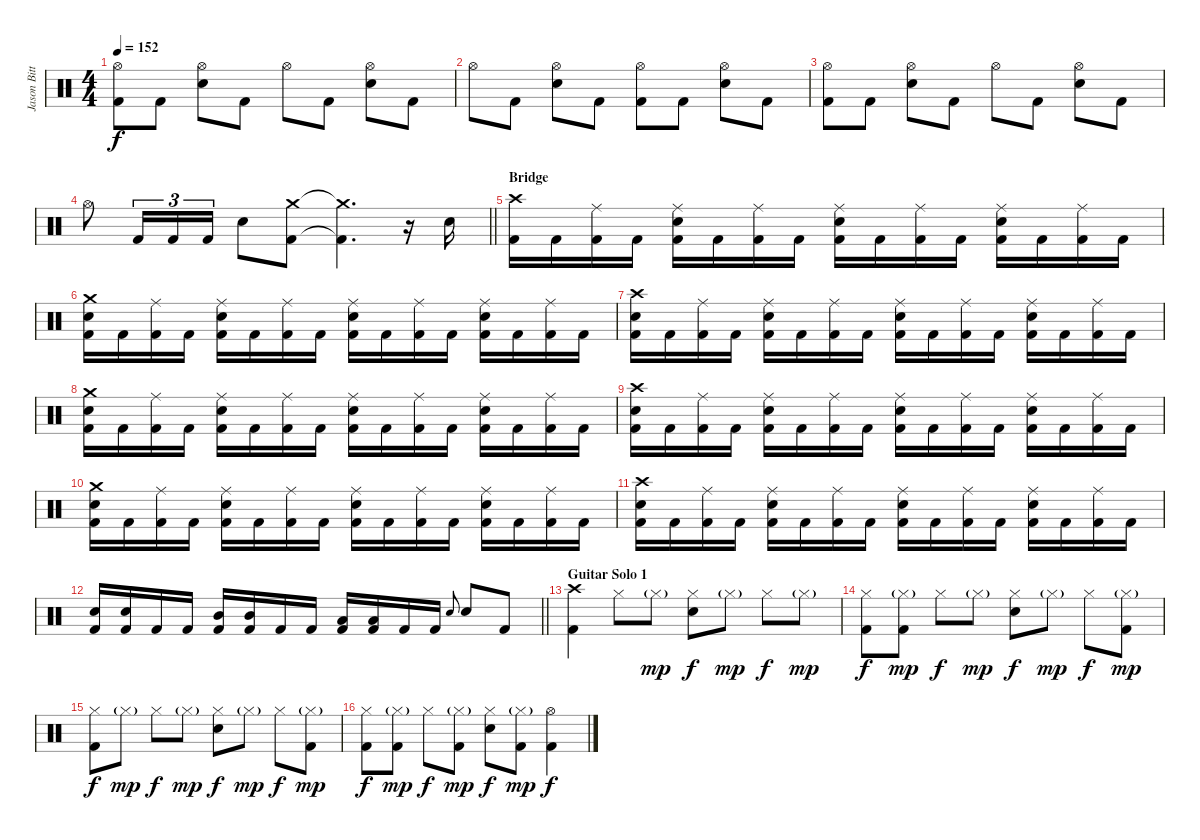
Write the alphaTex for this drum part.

\track ("Jason Bittner" "Jason Bitt") {instrument percussion}
\staff {score}
\articulation defaults
\ts (4 4)
\tempo 152
\clef neutral
\ks c
("Hi-Hat (open)" "Kick (hit) 2").8{dy f} "Kick (hit) 2".8 ("Hi-Hat (open)" "Electric Snare (hit)").8 "Kick (hit) 2".8 "Hi-Hat (open)".8 "Kick (hit) 2".8 ("Hi-Hat (open)" "Electric Snare (hit)").8 "Kick (hit) 2".8 |
"Hi-Hat (open)".8 "Kick (hit) 2".8 ("Hi-Hat (open)" "Electric Snare (hit)").8 "Kick (hit) 2".8 ("Hi-Hat (open)" "Kick (hit) 2").8 "Kick (hit) 2".8 ("Hi-Hat (open)" "Electric Snare (hit)").8 "Kick (hit) 2".8 |
("Hi-Hat (open)" "Kick (hit) 2").8 "Kick (hit) 2".8 ("Hi-Hat (open)" "Electric Snare (hit)").8 "Kick (hit) 2".8 "Hi-Hat (open)".8 "Kick (hit) 2".8 ("Hi-Hat (open)" "Electric Snare (hit)").8 "Kick (hit) 2".8 |
\barLineRight lightlight "Hi-Hat (open)".8 "Kick (hit) 2".16{tu (3 2)} "Kick (hit) 2".16{tu (3 2)} "Kick (hit) 2".16{tu (3 2)} "Electric Snare (hit)".8
("Crash medium (hit)" "Kick (hit) 2").8 ("Crash medium (hit)"{t} "Kick (hit) 2"{t}).4{d} r.16 "Electric Snare (hit)".16 |
\section ("" "Bridge")
("Crash high (hit)" "Kick (hit) 2").16 "Kick (hit) 2".16 ("Ride (middle)" "Kick (hit) 2").16 "Kick (hit) 2".16 ("Ride (middle)" "Electric Snare (hit)" "Kick (hit) 2").16 "Kick (hit) 2".16 ("Ride (middle)" "Kick (hit) 2").16 "Kick (hit) 2".16 ("Ride (middle)" "Electric Snare (hit)" "Kick (hit) 2").16 "Kick (hit) 2".16 ("Ride (middle)" "Kick (hit) 2").16 "Kick (hit) 2".16 ("Ride (middle)" "Electric Snare (hit)" "Kick (hit) 2").16 "Kick (hit) 2".16 ("Ride (middle)" "Kick (hit) 2").16 "Kick (hit) 2".16 |
("Crash medium (hit)" "Electric Snare (hit)" "Kick (hit) 2").16 "Kick (hit) 2".16 ("Ride (middle)" "Kick (hit) 2").16 "Kick (hit) 2".16 ("Ride (middle)" "Electric Snare (hit)" "Kick (hit) 2").16 "Kick (hit) 2".16 ("Ride (middle)" "Kick (hit) 2").16 "Kick (hit) 2".16 ("Ride (middle)" "Electric Snare (hit)" "Kick (hit) 2").16 "Kick (hit) 2".16 ("Ride (middle)" "Kick (hit) 2").16 "Kick (hit) 2".16 ("Ride (middle)" "Electric Snare (hit)" "Kick (hit) 2").16 "Kick (hit) 2".16 ("Ride (middle)" "Kick (hit) 2").16 "Kick (hit) 2".16 |
("Crash high (hit)" "Electric Snare (hit)" "Kick (hit) 2").16 "Kick (hit) 2".16 ("Ride (middle)" "Kick (hit) 2").16 "Kick (hit) 2".16 ("Ride (middle)" "Electric Snare (hit)" "Kick (hit) 2").16 "Kick (hit) 2".16 ("Ride (middle)" "Kick (hit) 2").16 "Kick (hit) 2".16 ("Ride (middle)" "Electric Snare (hit)" "Kick (hit) 2").16 "Kick (hit) 2".16 ("Ride (middle)" "Kick (hit) 2").16 "Kick (hit) 2".16 ("Ride (middle)" "Electric Snare (hit)" "Kick (hit) 2").16 "Kick (hit) 2".16 ("Ride (middle)" "Kick (hit) 2").16 "Kick (hit) 2".16 |
("Crash medium (hit)" "Electric Snare (hit)" "Kick (hit) 2").16 "Kick (hit) 2".16 ("Ride (middle)" "Kick (hit) 2").16 "Kick (hit) 2".16 ("Ride (middle)" "Electric Snare (hit)" "Kick (hit) 2").16 "Kick (hit) 2".16 ("Ride (middle)" "Kick (hit) 2").16 "Kick (hit) 2".16 ("Ride (middle)" "Electric Snare (hit)" "Kick (hit) 2").16 "Kick (hit) 2".16 ("Ride (middle)" "Kick (hit) 2").16 "Kick (hit) 2".16 ("Ride (middle)" "Electric Snare (hit)" "Kick (hit) 2").16 "Kick (hit) 2".16 ("Ride (middle)" "Kick (hit) 2").16 "Kick (hit) 2".16 |
("Crash high (hit)" "Electric Snare (hit)" "Kick (hit) 2").16 "Kick (hit) 2".16 ("Ride (middle)" "Kick (hit) 2").16 "Kick (hit) 2".16 ("Ride (middle)" "Electric Snare (hit)" "Kick (hit) 2").16 "Kick (hit) 2".16 ("Ride (middle)" "Kick (hit) 2").16 "Kick (hit) 2".16 ("Ride (middle)" "Electric Snare (hit)" "Kick (hit) 2").16 "Kick (hit) 2".16 ("Ride (middle)" "Kick (hit) 2").16 "Kick (hit) 2".16 ("Ride (middle)" "Electric Snare (hit)" "Kick (hit) 2").16 "Kick (hit) 2".16 ("Ride (middle)" "Kick (hit) 2").16 "Kick (hit) 2".16 |
("Crash medium (hit)" "Electric Snare (hit)" "Kick (hit) 2").16 "Kick (hit) 2".16 ("Ride (middle)" "Kick (hit) 2").16 "Kick (hit) 2".16 ("Ride (middle)" "Electric Snare (hit)" "Kick (hit) 2").16 "Kick (hit) 2".16 ("Ride (middle)" "Kick (hit) 2").16 "Kick (hit) 2".16 ("Ride (middle)" "Electric Snare (hit)" "Kick (hit) 2").16 "Kick (hit) 2".16 ("Ride (middle)" "Kick (hit) 2").16 "Kick (hit) 2".16 ("Ride (middle)" "Electric Snare (hit)" "Kick (hit) 2").16 "Kick (hit) 2".16 ("Ride (middle)" "Kick (hit) 2").16 "Kick (hit) 2".16 |
("Crash high (hit)" "Electric Snare (hit)" "Kick (hit) 2").16 "Kick (hit) 2".16 ("Ride (middle)" "Kick (hit) 2").16 "Kick (hit) 2".16 ("Ride (middle)" "Electric Snare (hit)" "Kick (hit) 2").16 "Kick (hit) 2".16 ("Ride (middle)" "Kick (hit) 2").16 "Kick (hit) 2".16 ("Ride (middle)" "Electric Snare (hit)" "Kick (hit) 2").16 "Kick (hit) 2".16 ("Ride (middle)" "Kick (hit) 2").16 "Kick (hit) 2".16 ("Ride (middle)" "Electric Snare (hit)" "Kick (hit) 2").16 "Kick (hit) 2".16 ("Ride (middle)" "Kick (hit) 2").16 "Kick (hit) 2".16 |
\barLineRight lightlight
("Electric Snare (hit)" "Kick (hit) 2").16 ("Electric Snare (hit)" "Kick (hit) 2").16 "Kick (hit) 2".16 "Kick (hit) 2".16 ("Mid Tom (hit)" "Kick (hit) 2").16 ("Mid Tom (hit)" "Kick (hit) 2").16 "Kick (hit) 2".16 "Kick (hit) 2".16 ("Low Tom (hit)" "Kick (hit) 2").16 ("Low Tom (hit)" "Kick (hit) 2").16 "Kick (hit) 2".16 "Kick (hit) 2".16 "Electric Snare (hit)".8{gr onbeat} "Electric Snare (hit)".8 "Kick (hit) 2".8 |
\section ("" "Guitar Solo 1")
("Crash high (hit)" "Kick (hit) 2").4 "Hi-Hat (closed)".8 "Hi-Hat (closed)"{g}.8{dy mp} ("Hi-Hat (closed)" "Electric Snare (hit)").8{dy f} "Hi-Hat (closed)"{g}.8{dy mp} "Hi-Hat (closed)".8{dy f} "Hi-Hat (closed)"{g}.8{dy mp} |
("Hi-Hat (closed)" "Kick (hit) 2").8{dy f} ("Hi-Hat (closed)"{g} "Kick (hit) 2").8{dy mp} "Hi-Hat (closed)".8{dy f} "Hi-Hat (closed)"{g}.8{dy mp} ("Hi-Hat (closed)" "Electric Snare (hit)").8{dy f} "Hi-Hat (closed)"{g}.8{dy mp} "Hi-Hat (closed)".8{dy f} ("Hi-Hat (closed)"{g} "Kick (hit) 2").8{dy mp} |
("Hi-Hat (closed)" "Kick (hit) 2").8{dy f} "Hi-Hat (closed)"{g}.8{dy mp} "Hi-Hat (closed)".8{dy f} "Hi-Hat (closed)"{g}.8{dy mp} ("Hi-Hat (closed)" "Electric Snare (hit)").8{dy f} "Hi-Hat (closed)"{g}.8{dy mp} "Hi-Hat (closed)".8{dy f} ("Hi-Hat (closed)"{g} "Kick (hit) 2").8{dy mp} |
("Hi-Hat (closed)" "Kick (hit) 2").8{dy f} ("Hi-Hat (closed)"{g} "Kick (hit) 2").8{dy mp} "Hi-Hat (closed)".8{dy f} ("Hi-Hat (closed)"{g} "Kick (hit) 2").8{dy mp} ("Hi-Hat (closed)" "Electric Snare (hit)").8{dy f} ("Hi-Hat (closed)"{g} "Kick (hit) 2").8{dy mp} ("Hi-Hat (open)" "Kick (hit) 2").4{dy f}
